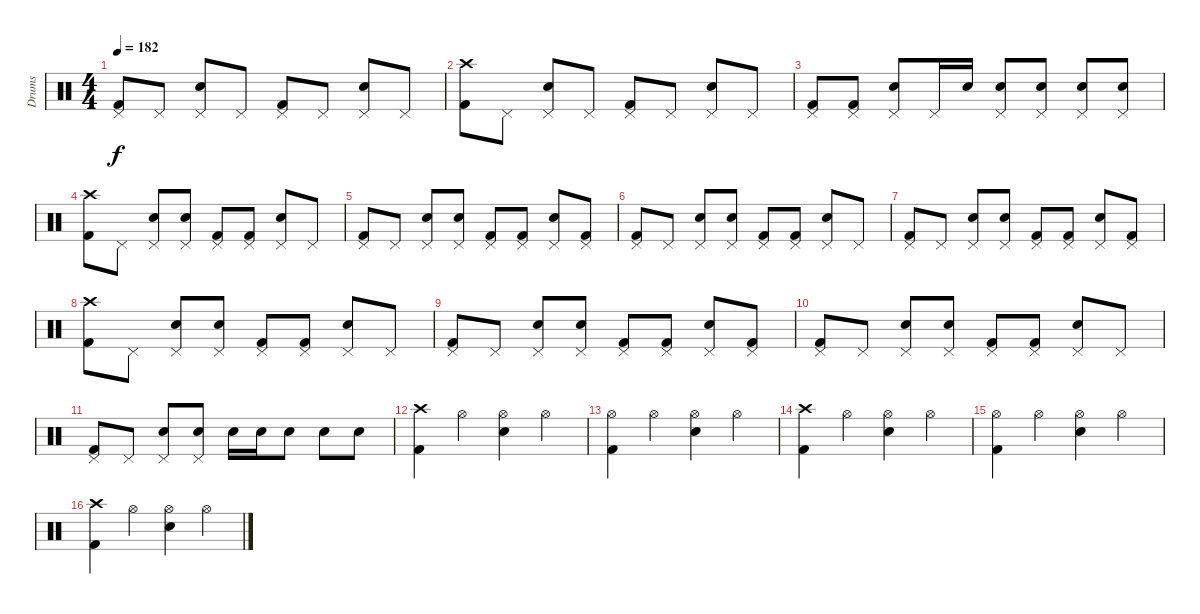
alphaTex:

\track ("Drums" "Drums") {instrument percussion}
\staff {score}
\articulation defaults
\ts (4 4)
\tempo 182
\clef neutral
\ks c
("Pedal Hi-Hat (hit)" "Kick (hit) 2").8{dy f} "Pedal Hi-Hat (hit)".8 ("Pedal Hi-Hat (hit)" "Electric Snare (hit)").8 "Pedal Hi-Hat (hit)".8 ("Pedal Hi-Hat (hit)" "Kick (hit) 2").8 "Pedal Hi-Hat (hit)".8 ("Pedal Hi-Hat (hit)" "Electric Snare (hit)").8 "Pedal Hi-Hat (hit)".8 |
("Crash high (hit)" "Kick (hit) 2").8 "Pedal Hi-Hat (hit)".8 ("Pedal Hi-Hat (hit)" "Electric Snare (hit)").8 "Pedal Hi-Hat (hit)".8 ("Pedal Hi-Hat (hit)" "Kick (hit) 2").8 "Pedal Hi-Hat (hit)".8 ("Pedal Hi-Hat (hit)" "Electric Snare (hit)").8 "Pedal Hi-Hat (hit)".8 |
("Pedal Hi-Hat (hit)" "Kick (hit) 2").8 ("Pedal Hi-Hat (hit)" "Kick (hit) 2").8 ("Pedal Hi-Hat (hit)" "Electric Snare (hit)").8 "Pedal Hi-Hat (hit)".16 "Electric Snare (hit)".16 ("Pedal Hi-Hat (hit)" "Electric Snare (hit)").8 ("Pedal Hi-Hat (hit)" "Electric Snare (hit)").8 ("Pedal Hi-Hat (hit)" "Electric Snare (hit)").8 ("Pedal Hi-Hat (hit)" "Electric Snare (hit)").8 |
("Crash high (hit)" "Kick (hit) 2").8 "Pedal Hi-Hat (hit)".8 ("Pedal Hi-Hat (hit)" "Electric Snare (hit)").8 ("Pedal Hi-Hat (hit)" "Electric Snare (hit)").8 ("Pedal Hi-Hat (hit)" "Kick (hit) 2").8 ("Pedal Hi-Hat (hit)" "Kick (hit) 2").8 ("Pedal Hi-Hat (hit)" "Electric Snare (hit)").8 "Pedal Hi-Hat (hit)".8 |
("Pedal Hi-Hat (hit)" "Kick (hit) 2").8 "Pedal Hi-Hat (hit)".8 ("Pedal Hi-Hat (hit)" "Electric Snare (hit)").8 ("Pedal Hi-Hat (hit)" "Electric Snare (hit)").8 ("Pedal Hi-Hat (hit)" "Kick (hit) 2").8 ("Pedal Hi-Hat (hit)" "Kick (hit) 2").8 ("Pedal Hi-Hat (hit)" "Electric Snare (hit)").8 ("Pedal Hi-Hat (hit)" "Kick (hit) 2").8 |
("Pedal Hi-Hat (hit)" "Kick (hit) 2").8 "Pedal Hi-Hat (hit)".8 ("Pedal Hi-Hat (hit)" "Electric Snare (hit)").8 ("Pedal Hi-Hat (hit)" "Electric Snare (hit)").8 ("Pedal Hi-Hat (hit)" "Kick (hit) 2").8 ("Pedal Hi-Hat (hit)" "Kick (hit) 2").8 ("Pedal Hi-Hat (hit)" "Electric Snare (hit)").8 "Pedal Hi-Hat (hit)".8 |
("Pedal Hi-Hat (hit)" "Kick (hit) 2").8 "Pedal Hi-Hat (hit)".8 ("Pedal Hi-Hat (hit)" "Electric Snare (hit)").8 ("Pedal Hi-Hat (hit)" "Electric Snare (hit)").8 ("Pedal Hi-Hat (hit)" "Kick (hit) 2").8 ("Pedal Hi-Hat (hit)" "Kick (hit) 2").8 ("Pedal Hi-Hat (hit)" "Electric Snare (hit)").8 ("Pedal Hi-Hat (hit)" "Kick (hit) 2").8 |
("Crash high (hit)" "Kick (hit) 2").8 "Pedal Hi-Hat (hit)".8 ("Pedal Hi-Hat (hit)" "Electric Snare (hit)").8 ("Pedal Hi-Hat (hit)" "Electric Snare (hit)").8 ("Pedal Hi-Hat (hit)" "Kick (hit) 2").8 ("Pedal Hi-Hat (hit)" "Kick (hit) 2").8 ("Pedal Hi-Hat (hit)" "Electric Snare (hit)").8 "Pedal Hi-Hat (hit)".8 |
("Pedal Hi-Hat (hit)" "Kick (hit) 2").8 "Pedal Hi-Hat (hit)".8 ("Pedal Hi-Hat (hit)" "Electric Snare (hit)").8 ("Pedal Hi-Hat (hit)" "Electric Snare (hit)").8 ("Pedal Hi-Hat (hit)" "Kick (hit) 2").8 ("Pedal Hi-Hat (hit)" "Kick (hit) 2").8 ("Pedal Hi-Hat (hit)" "Electric Snare (hit)").8 ("Pedal Hi-Hat (hit)" "Kick (hit) 2").8 |
("Pedal Hi-Hat (hit)" "Kick (hit) 2").8 "Pedal Hi-Hat (hit)".8 ("Pedal Hi-Hat (hit)" "Electric Snare (hit)").8 ("Pedal Hi-Hat (hit)" "Electric Snare (hit)").8 ("Pedal Hi-Hat (hit)" "Kick (hit) 2").8 ("Pedal Hi-Hat (hit)" "Kick (hit) 2").8 ("Pedal Hi-Hat (hit)" "Electric Snare (hit)").8 "Pedal Hi-Hat (hit)".8 |
("Pedal Hi-Hat (hit)" "Kick (hit) 2").8 "Pedal Hi-Hat (hit)".8 ("Pedal Hi-Hat (hit)" "Electric Snare (hit)").8 ("Pedal Hi-Hat (hit)" "Electric Snare (hit)").8 "Electric Snare (hit)".16 "Electric Snare (hit)".16 "Electric Snare (hit)".8 "Electric Snare (hit)".8 "Electric Snare (hit)".8 |
("Crash high (hit)" "Kick (hit) 2").4 "Hi-Hat (open)".4 ("Hi-Hat (open)" "Electric Snare (hit)").4 "Hi-Hat (open)".4 |
("Hi-Hat (open)" "Kick (hit) 2").4 "Hi-Hat (open)".4 ("Hi-Hat (open)" "Electric Snare (hit)").4 "Hi-Hat (open)".4 |
("Crash high (hit)" "Kick (hit) 2").4 "Hi-Hat (open)".4 ("Hi-Hat (open)" "Electric Snare (hit)").4 "Hi-Hat (open)".4 |
("Hi-Hat (open)" "Kick (hit) 2").4 "Hi-Hat (open)".4 ("Hi-Hat (open)" "Electric Snare (hit)").4 "Hi-Hat (open)".4 |
("Crash high (hit)" "Kick (hit) 2").4 "Hi-Hat (open)".4 ("Hi-Hat (open)" "Electric Snare (hit)").4 "Hi-Hat (open)".4
